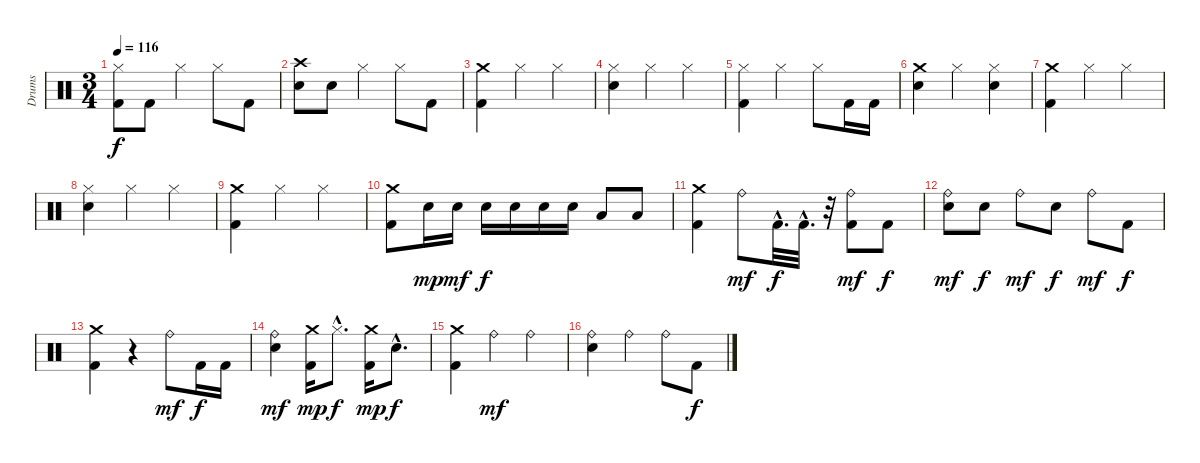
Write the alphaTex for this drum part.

\track ("Drums" "Drums") {instrument percussion}
\staff {score}
\articulation defaults
\ts (3 4)
\tempo 116
\clef neutral
\ks c
("Kick (hit) 2" "Hi-Hat (closed)").8{dy f} "Kick (hit) 2".8 "Hi-Hat (closed)".4 "Hi-Hat (closed)".8 "Kick (hit) 2".8 |
("Electric Snare (hit)" "Crash high (hit)").8 "Electric Snare (hit)".8 "Hi-Hat (closed)".4 "Hi-Hat (closed)".8 "Kick (hit) 2".8 |
("Kick (hit) 2" "Crash medium (hit)").4 "Hi-Hat (closed)".4 "Hi-Hat (closed)".4 |
("Electric Snare (hit)" "Hi-Hat (closed)").4 "Hi-Hat (closed)".4 "Hi-Hat (closed)".4 |
("Kick (hit) 2" "Hi-Hat (closed)").4 "Hi-Hat (closed)".4 "Hi-Hat (closed)".8 "Kick (hit) 2".16 "Kick (hit) 2".16 |
("Electric Snare (hit)" "Crash medium (hit)").4 "Hi-Hat (closed)".4 ("Electric Snare (hit)" "Hi-Hat (closed)").4 |
("Kick (hit) 2" "Crash medium (hit)").4 "Hi-Hat (closed)".4 "Hi-Hat (closed)".4 |
("Electric Snare (hit)" "Hi-Hat (closed)").4 "Hi-Hat (closed)".4 "Hi-Hat (closed)".4 |
("Kick (hit) 2" "Crash medium (hit)").4 "Hi-Hat (closed)".4 "Hi-Hat (closed)".4 |
("Kick (hit) 2" "Crash medium (hit)").8 "Electric Snare (hit)".16{dy mp} "Electric Snare (hit)".16{dy mf} "Electric Snare (hit)".16{dy f} "Electric Snare (hit)".16 "Electric Snare (hit)".16 "Electric Snare (hit)".16 "Low Tom (hit)".8 "Low Tom (hit)".8 |
("Kick (hit) 2" "Crash medium (hit)").4 "Ride (bell)".8{dy mf} "Kick (hit) 2"{hac}.32{d dy f} "Kick (hit) 2"{hac}.32{d} r.32 ("Kick (hit) 2" "Ride (bell)").8{dy mf} "Kick (hit) 2".8{dy f} |
("Electric Snare (hit)" "Ride (bell)").8{dy mf} "Electric Snare (hit)".8{dy f} "Ride (bell)".8{dy mf} "Electric Snare (hit)".8{dy f} "Ride (bell)".8{dy mf} "Kick (hit) 2".8{dy f} |
("Kick (hit) 2" "Crash medium (hit)").4 r.4 "Ride (bell)".8{dy mf} "Kick (hit) 2".16{dy f} "Kick (hit) 2".16 |
("Electric Snare (hit)" "Ride (bell)").4{dy mf} ("Kick (hit) 2" "Crash medium (hit)").16{dy mp} "Hi-Hat (closed)"{hac x}.8{d dy f} ("Kick (hit) 2" "Crash medium (hit)").16{dy mp} "Snare (hit)"{hac x}.8{d dy f} |
("Kick (hit) 2" "Crash medium (hit)").4 "Ride (bell)".4{dy mf} "Ride (bell)".4 |
("Electric Snare (hit)" "Ride (bell)").4 "Ride (bell)".4 "Ride (bell)".8 "Kick (hit) 2".8{dy f}
